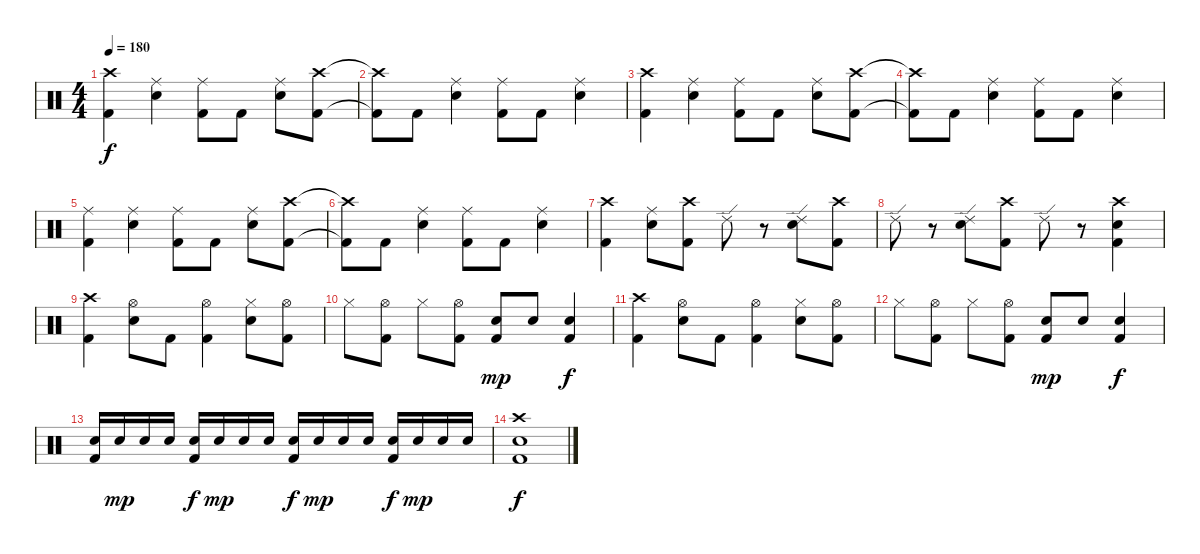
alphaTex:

\track "" {instrument percussion}
\staff {score}
\articulation defaults
\ts (4 4)
\tempo 180
\clef neutral
\ks c
("Crash high (hit)" "Kick (hit) 2").4{dy f} ("Ride (middle)" "Electric Snare (hit)").4 ("Ride (middle)" "Kick (hit) 2").8 "Kick (hit) 2".8 ("Ride (middle)" "Electric Snare (hit)").8 ("Crash high (hit)" "Kick (hit) 2").8 |
("Crash high (hit)"{t} "Kick (hit) 2"{t}).8 "Kick (hit) 2".8 ("Ride (middle)" "Electric Snare (hit)").4 ("Ride (middle)" "Kick (hit) 2").8 "Kick (hit) 2".8 ("Ride (middle)" "Electric Snare (hit)").4 |
("Crash high (hit)" "Kick (hit) 2").4 ("Ride (middle)" "Electric Snare (hit)").4 ("Ride (middle)" "Kick (hit) 2").8 "Kick (hit) 2".8 ("Ride (middle)" "Electric Snare (hit)").8 ("Crash high (hit)" "Kick (hit) 2").8 |
("Crash high (hit)"{t} "Kick (hit) 2"{t}).8 "Kick (hit) 2".8 ("Ride (middle)" "Electric Snare (hit)").4 ("Ride (middle)" "Kick (hit) 2").8 "Kick (hit) 2".8 ("Ride (middle)" "Electric Snare (hit)").4 |
("Ride (middle)" "Kick (hit) 2").4 ("Ride (middle)" "Electric Snare (hit)").4 ("Ride (middle)" "Kick (hit) 2").8 "Kick (hit) 2".8 ("Ride (middle)" "Electric Snare (hit)").8 ("Crash high (hit)" "Kick (hit) 2").8 |
("Crash high (hit)"{t} "Kick (hit) 2"{t}).8 "Kick (hit) 2".8 ("Ride (middle)" "Electric Snare (hit)").4 ("Ride (middle)" "Kick (hit) 2").8{txt ""} "Kick (hit) 2".8 ("Ride (middle)" "Electric Snare (hit)").4 |
("Crash high (hit)" "Kick (hit) 2").4 ("Ride (middle)" "Electric Snare (hit)").8 ("Crash high (hit)" "Kick (hit) 2").8 "Ride (edge) 2".8 r.8 ("Ride (edge) 2" "Electric Snare (hit)").8 ("Crash high (hit)" "Kick (hit) 2").8 |
"Ride (edge) 2".8 r.8 ("Ride (edge) 2" "Electric Snare (hit)").8 ("Crash high (hit)" "Kick (hit) 2").8 "Ride (edge) 2".8 r.8 ("Crash high (hit)" "Electric Snare (hit)" "Kick (hit) 2").4 |
("Crash high (hit)" "Kick (hit) 2").4 ("Hi-Hat (open)" "Electric Snare (hit)").8 "Kick (hit) 2".8 ("Hi-Hat (open)" "Kick (hit) 2").4 ("Hi-Hat (closed)" "Electric Snare (hit)").8 ("Hi-Hat (open)" "Kick (hit) 2").8 |
"Hi-Hat (closed)".8 ("Hi-Hat (open)" "Kick (hit) 2").8 "Hi-Hat (closed)".8 ("Hi-Hat (open)" "Kick (hit) 2").8 ("Electric Snare (hit)" "Kick (hit) 2").8{dy mp} "Electric Snare (hit)".8 ("Electric Snare (hit)" "Kick (hit) 2").4{dy f} |
("Crash high (hit)" "Kick (hit) 2").4 ("Hi-Hat (open)" "Electric Snare (hit)").8 "Kick (hit) 2".8 ("Hi-Hat (open)" "Kick (hit) 2").4 ("Hi-Hat (closed)" "Electric Snare (hit)").8 ("Hi-Hat (open)" "Kick (hit) 2").8 |
"Hi-Hat (closed)".8 ("Hi-Hat (open)" "Kick (hit) 2").8 "Hi-Hat (closed)".8 ("Hi-Hat (open)" "Kick (hit) 2").8 ("Electric Snare (hit)" "Kick (hit) 2").8{dy mp} "Electric Snare (hit)".8 ("Electric Snare (hit)" "Kick (hit) 2").4{dy f} |
("Electric Snare (hit)" "Kick (hit) 2").16 "Electric Snare (hit)".16{dy mp} "Electric Snare (hit)".16 "Electric Snare (hit)".16 ("Electric Snare (hit)" "Kick (hit) 2").16{dy f} "Electric Snare (hit)".16{dy mp} "Electric Snare (hit)".16 "Electric Snare (hit)".16 ("Electric Snare (hit)" "Kick (hit) 2").16{dy f} "Electric Snare (hit)".16{dy mp} "Electric Snare (hit)".16 "Electric Snare (hit)".16 ("Electric Snare (hit)" "Kick (hit) 2").16{dy f} "Electric Snare (hit)".16{dy mp} "Electric Snare (hit)".16 "Electric Snare (hit)".16 |
("Crash high (hit)" "Electric Snare (hit)" "Kick (hit) 2").1{dy f}
